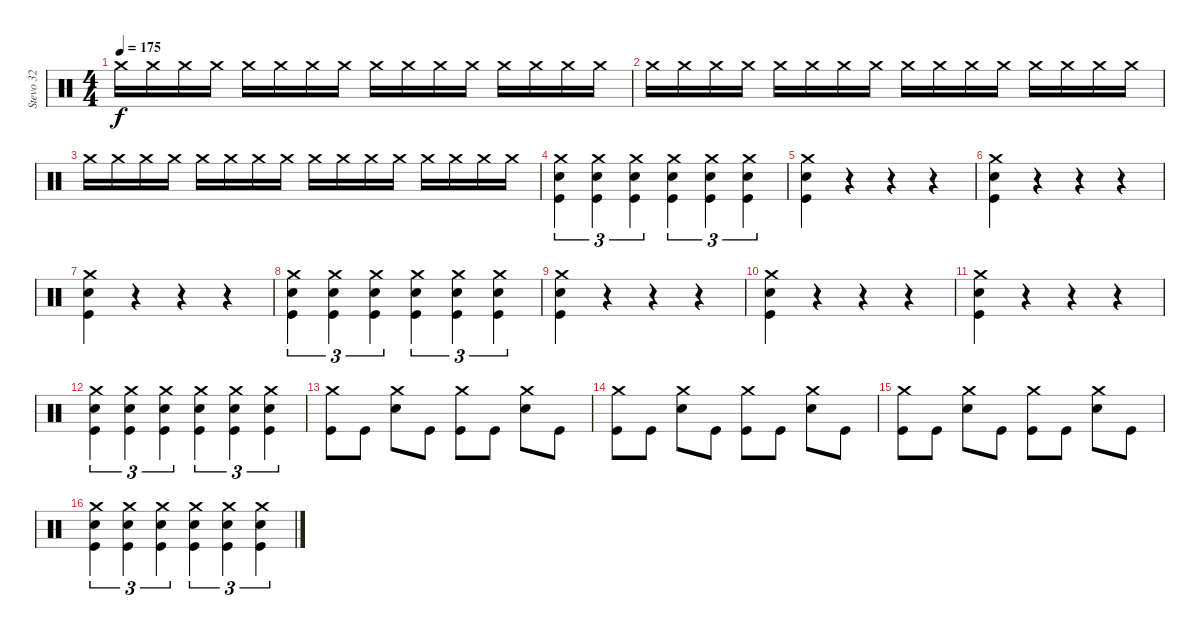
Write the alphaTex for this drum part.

\track ("Stevo 32" "Stevo 32") {instrument percussion}
\staff {score}
\articulation defaults
\ts (4 4)
\tempo 175
\clef neutral
\ks c "Crash medium (hit)".16{dy f} "Crash medium (hit)".16 "Crash medium (hit)".16 "Crash medium (hit)".16 "Crash medium (hit)".16 "Crash medium (hit)".16 "Crash medium (hit)".16 "Crash medium (hit)".16 "Crash medium (hit)".16 "Crash medium (hit)".16 "Crash medium (hit)".16 "Crash medium (hit)".16 "Crash medium (hit)".16 "Crash medium (hit)".16 "Crash medium (hit)".16 "Crash medium (hit)".16
|
"Crash medium (hit)".16 "Crash medium (hit)".16 "Crash medium (hit)".16 "Crash medium (hit)".16 "Crash medium (hit)".16 "Crash medium (hit)".16 "Crash medium (hit)".16 "Crash medium (hit)".16 "Crash medium (hit)".16 "Crash medium (hit)".16 "Crash medium (hit)".16 "Crash medium (hit)".16 "Crash medium (hit)".16 "Crash medium (hit)".16 "Crash medium (hit)".16 "Crash medium (hit)".16 |
"Crash medium (hit)".16 "Crash medium (hit)".16 "Crash medium (hit)".16 "Crash medium (hit)".16 "Crash medium (hit)".16 "Crash medium (hit)".16 "Crash medium (hit)".16 "Crash medium (hit)".16 "Crash medium (hit)".16 "Crash medium (hit)".16 "Crash medium (hit)".16 "Crash medium (hit)".16 "Crash medium (hit)".16 "Crash medium (hit)".16 "Crash medium (hit)".16 "Crash medium (hit)".16 |
("Crash medium (hit)" "Electric Snare (hit)" "Kick (hit)").4{tu (3 2)} ("Crash medium (hit)" "Electric Snare (hit)" "Kick (hit)").4{tu (3 2)} ("Crash medium (hit)" "Electric Snare (hit)" "Kick (hit)").4{tu (3 2)} ("Crash medium (hit)" "Electric Snare (hit)" "Kick (hit)").4{tu (3 2)} ("Crash medium (hit)" "Electric Snare (hit)" "Kick (hit)").4{tu (3 2)} ("Crash medium (hit)" "Electric Snare (hit)" "Kick (hit)").4{tu (3 2)} |
("Crash medium (hit)" "Electric Snare (hit)" "Kick (hit)").4 r.4 r.4 r.4 |
("Crash medium (hit)" "Electric Snare (hit)" "Kick (hit)").4 r.4 r.4 r.4 |
("Crash medium (hit)" "Electric Snare (hit)" "Kick (hit)").4 r.4 r.4 r.4 |
("Crash medium (hit)" "Electric Snare (hit)" "Kick (hit)").4{tu (3 2)} ("Crash medium (hit)" "Electric Snare (hit)" "Kick (hit)").4{tu (3 2)} ("Crash medium (hit)" "Electric Snare (hit)" "Kick (hit)").4{tu (3 2)} ("Crash medium (hit)" "Electric Snare (hit)" "Kick (hit)").4{tu (3 2)} ("Crash medium (hit)" "Electric Snare (hit)" "Kick (hit)").4{tu (3 2)} ("Crash medium (hit)" "Electric Snare (hit)" "Kick (hit)").4{tu (3 2)} |
("Crash medium (hit)" "Electric Snare (hit)" "Kick (hit)").4 r.4 r.4 r.4 |
("Crash medium (hit)" "Electric Snare (hit)" "Kick (hit)").4 r.4 r.4 r.4 |
("Crash medium (hit)" "Electric Snare (hit)" "Kick (hit)").4 r.4 r.4 r.4 |
("Crash medium (hit)" "Electric Snare (hit)" "Kick (hit)").4{tu (3 2)} ("Crash medium (hit)" "Electric Snare (hit)" "Kick (hit)").4{tu (3 2)} ("Crash medium (hit)" "Electric Snare (hit)" "Kick (hit)").4{tu (3 2)} ("Crash medium (hit)" "Electric Snare (hit)" "Kick (hit)").4{tu (3 2)} ("Crash medium (hit)" "Electric Snare (hit)" "Kick (hit)").4{tu (3 2)} ("Crash medium (hit)" "Electric Snare (hit)" "Kick (hit)").4{tu (3 2)} |
("Crash medium (hit)" "Kick (hit)").8 "Kick (hit)".8 ("Crash medium (hit)" "Electric Snare (hit)").8 "Kick (hit)".8 ("Crash medium (hit)" "Kick (hit)").8 "Kick (hit)".8 ("Crash medium (hit)" "Electric Snare (hit)").8 "Kick (hit)".8 |
("Crash medium (hit)" "Kick (hit)").8 "Kick (hit)".8 ("Crash medium (hit)" "Electric Snare (hit)").8 "Kick (hit)".8 ("Crash medium (hit)" "Kick (hit)").8 "Kick (hit)".8 ("Crash medium (hit)" "Electric Snare (hit)").8 "Kick (hit)".8 |
("Crash medium (hit)" "Kick (hit)").8 "Kick (hit)".8 ("Crash medium (hit)" "Electric Snare (hit)").8 "Kick (hit)".8 ("Crash medium (hit)" "Kick (hit)").8 "Kick (hit)".8 ("Crash medium (hit)" "Electric Snare (hit)").8 "Kick (hit)".8 |
("Crash medium (hit)" "Electric Snare (hit)" "Kick (hit)").4{tu (3 2)} ("Crash medium (hit)" "Electric Snare (hit)" "Kick (hit)").4{tu (3 2)} ("Crash medium (hit)" "Electric Snare (hit)" "Kick (hit)").4{tu (3 2)} ("Crash medium (hit)" "Electric Snare (hit)" "Kick (hit)").4{tu (3 2)} ("Crash medium (hit)" "Electric Snare (hit)" "Kick (hit)").4{tu (3 2)} ("Crash medium (hit)" "Electric Snare (hit)" "Kick (hit)").4{tu (3 2)}
